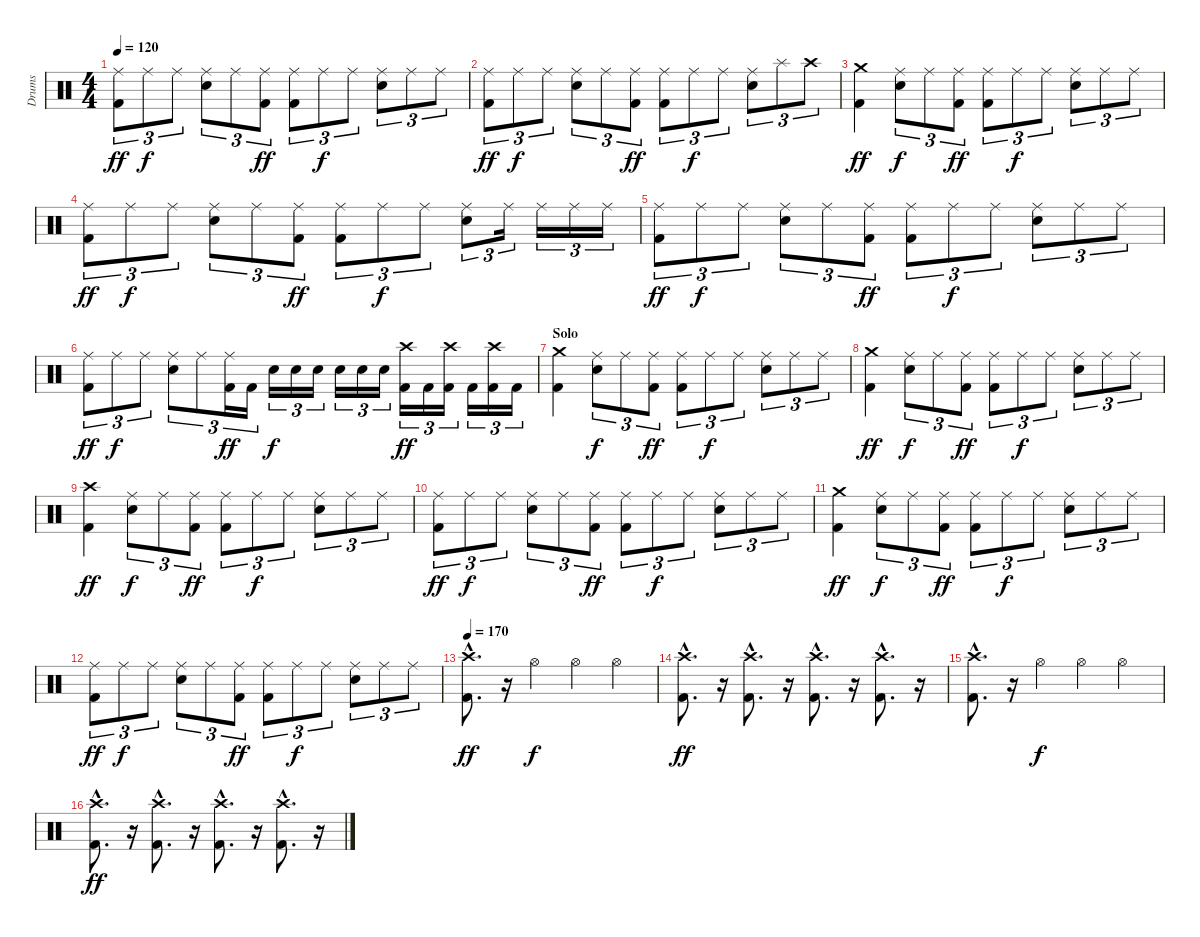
\track ("Drums" "Drums") {instrument percussion}
\staff {score}
\articulation defaults
\ts (4 4)
\tempo 120
\clef neutral
\ks c
("Ride (middle)" "Kick (hit) 2").8{tu (3 2) dy ff} "Ride (middle)".8{tu (3 2) dy f} "Ride (middle)".8{tu (3 2)} ("Ride (middle)" "Electric Snare (hit)").8{tu (3 2)} "Ride (middle)".8{tu (3 2)} ("Ride (middle)" "Kick (hit) 2").8{tu (3 2) dy ff} ("Ride (middle)" "Kick (hit) 2").8{tu (3 2)} "Ride (middle)".8{tu (3 2) dy f} "Ride (middle)".8{tu (3 2)} ("Ride (middle)" "Electric Snare (hit)").8{tu (3 2)} "Ride (middle)".8{tu (3 2)} "Ride (middle)".8{tu (3 2)} |
("Ride (middle)" "Kick (hit) 2").8{tu (3 2) dy ff} "Ride (middle)".8{tu (3 2) dy f} "Ride (middle)".8{tu (3 2)} ("Ride (middle)" "Electric Snare (hit)").8{tu (3 2)} "Ride (middle)".8{tu (3 2)} ("Ride (middle)" "Kick (hit) 2").8{tu (3 2) dy ff} ("Ride (middle)" "Kick (hit) 2").8{tu (3 2)} "Ride (middle)".8{tu (3 2) dy f} "Ride (middle)".8{tu (3 2)} ("Ride (middle)" "Electric Snare (hit)").8{tu (3 2)} "Splash (hit)".8{tu (3 2)} "Crash high (hit)".8{tu (3 2)} |
("Crash medium (hit)" "Kick (hit) 2").4{dy ff} ("Ride (middle)" "Electric Snare (hit)").8{tu (3 2) dy f} "Ride (middle)".8{tu (3 2)} ("Ride (middle)" "Kick (hit) 2").8{tu (3 2) dy ff} ("Ride (middle)" "Kick (hit) 2").8{tu (3 2)} "Ride (middle)".8{tu (3 2) dy f} "Ride (middle)".8{tu (3 2)} ("Ride (middle)" "Electric Snare (hit)").8{tu (3 2)} "Ride (middle)".8{tu (3 2)} "Ride (middle)".8{tu (3 2)} |
("Ride (middle)" "Kick (hit) 2").8{tu (3 2) dy ff} "Ride (middle)".8{tu (3 2) dy f} "Ride (middle)".8{tu (3 2)} ("Ride (middle)" "Electric Snare (hit)").8{tu (3 2)} "Ride (middle)".8{tu (3 2)} ("Ride (middle)" "Kick (hit) 2").8{tu (3 2) dy ff} ("Ride (middle)" "Kick (hit) 2").8{tu (3 2)} "Ride (middle)".8{tu (3 2) dy f} "Ride (middle)".8{tu (3 2)} ("Ride (middle)" "Electric Snare (hit)").8{tu (3 2)} "Ride (middle)".16{tu (3 2)} "Ride (middle)".16{tu (3 2)} "Ride (middle)".16{tu (3 2)} "Ride (middle)".16{tu (3 2)} |
("Ride (middle)" "Kick (hit) 2").8{tu (3 2) dy ff} "Ride (middle)".8{tu (3 2) dy f} "Ride (middle)".8{tu (3 2)} ("Ride (middle)" "Electric Snare (hit)").8{tu (3 2)} "Ride (middle)".8{tu (3 2)} ("Ride (middle)" "Kick (hit) 2").8{tu (3 2) dy ff} ("Ride (middle)" "Kick (hit) 2").8{tu (3 2)} "Ride (middle)".8{tu (3 2) dy f} "Ride (middle)".8{tu (3 2)} ("Ride (middle)" "Electric Snare (hit)").8{tu (3 2)} "Ride (middle)".8{tu (3 2)} "Ride (middle)".8{tu (3 2)} |
("Ride (middle)" "Kick (hit) 2").8{tu (3 2) dy ff} "Ride (middle)".8{tu (3 2) dy f} "Ride (middle)".8{tu (3 2)} ("Ride (middle)" "Electric Snare (hit)").8{tu (3 2)} "Ride (middle)".8{tu (3 2)} ("Ride (middle)" "Kick (hit) 2").16{tu (3 2) dy ff} "Kick (hit) 2".16{tu (3 2)} "Electric Snare (hit)".16{tu (3 2) dy f} "Electric Snare (hit)".16{tu (3 2)} "Electric Snare (hit)".16{tu (3 2)} "Electric Snare (hit)".16{tu (3 2)} "Electric Snare (hit)".16{tu (3 2)} "Electric Snare (hit)".16{tu (3 2)} ("Crash high (hit)" "Kick (hit) 2").16{tu (3 2) dy ff} "Kick (hit) 2".16{tu (3 2)} ("Crash high (hit)" "Kick (hit) 2").16{tu (3 2)} "Kick (hit) 2".16{tu (3 2)} ("Crash high (hit)" "Kick (hit) 2").16{tu (3 2)} "Kick (hit) 2".16{tu (3 2)} |
\section ("" "Solo")
("Crash medium (hit)" "Kick (hit) 2").4 ("Ride (middle)" "Electric Snare (hit)").8{tu (3 2) dy f} "Ride (middle)".8{tu (3 2)} ("Ride (middle)" "Kick (hit) 2").8{tu (3 2) dy ff} ("Ride (middle)" "Kick (hit) 2").8{tu (3 2)} "Ride (middle)".8{tu (3 2) dy f} "Ride (middle)".8{tu (3 2)} ("Ride (middle)" "Electric Snare (hit)").8{tu (3 2)} "Ride (middle)".8{tu (3 2)} "Ride (middle)".8{tu (3 2)} |
("Crash medium (hit)" "Kick (hit) 2").4{dy ff} ("Ride (middle)" "Electric Snare (hit)").8{tu (3 2) dy f} "Ride (middle)".8{tu (3 2)} ("Ride (middle)" "Kick (hit) 2").8{tu (3 2) dy ff} ("Ride (middle)" "Kick (hit) 2").8{tu (3 2)} "Ride (middle)".8{tu (3 2) dy f} "Ride (middle)".8{tu (3 2)} ("Ride (middle)" "Electric Snare (hit)").8{tu (3 2)} "Ride (middle)".8{tu (3 2)} "Ride (middle)".8{tu (3 2)} |
("Crash high (hit)" "Kick (hit) 2").4{dy ff} ("Ride (middle)" "Electric Snare (hit)").8{tu (3 2) dy f} "Ride (middle)".8{tu (3 2)} ("Ride (middle)" "Kick (hit) 2").8{tu (3 2) dy ff} ("Ride (middle)" "Kick (hit) 2").8{tu (3 2)} "Ride (middle)".8{tu (3 2) dy f} "Ride (middle)".8{tu (3 2)} ("Ride (middle)" "Electric Snare (hit)").8{tu (3 2)} "Ride (middle)".8{tu (3 2)} "Ride (middle)".8{tu (3 2)} |
("Ride (middle)" "Kick (hit) 2").8{tu (3 2) dy ff} "Ride (middle)".8{tu (3 2) dy f} "Ride (middle)".8{tu (3 2)} ("Ride (middle)" "Electric Snare (hit)").8{tu (3 2)} "Ride (middle)".8{tu (3 2)} ("Ride (middle)" "Kick (hit) 2").8{tu (3 2) dy ff} ("Ride (middle)" "Kick (hit) 2").8{tu (3 2)} "Ride (middle)".8{tu (3 2) dy f} "Ride (middle)".8{tu (3 2)} ("Ride (middle)" "Electric Snare (hit)").8{tu (3 2)} "Ride (middle)".8{tu (3 2)} "Ride (middle)".8{tu (3 2)} |
("Crash medium (hit)" "Kick (hit) 2").4{dy ff} ("Ride (middle)" "Electric Snare (hit)").8{tu (3 2) dy f} "Ride (middle)".8{tu (3 2)} ("Ride (middle)" "Kick (hit) 2").8{tu (3 2) dy ff} ("Ride (middle)" "Kick (hit) 2").8{tu (3 2)} "Ride (middle)".8{tu (3 2) dy f} "Ride (middle)".8{tu (3 2)} ("Ride (middle)" "Electric Snare (hit)").8{tu (3 2)} "Ride (middle)".8{tu (3 2)} "Ride (middle)".8{tu (3 2)} |
("Ride (middle)" "Kick (hit) 2").8{tu (3 2) dy ff} "Ride (middle)".8{tu (3 2) dy f} "Ride (middle)".8{tu (3 2)} ("Ride (middle)" "Electric Snare (hit)").8{tu (3 2)} "Ride (middle)".8{tu (3 2)} ("Ride (middle)" "Kick (hit) 2").8{tu (3 2) dy ff} ("Ride (middle)" "Kick (hit) 2").8{tu (3 2)} "Ride (middle)".8{tu (3 2) dy f} "Ride (middle)".8{tu (3 2)} ("Ride (middle)" "Electric Snare (hit)").8{tu (3 2)} "Ride (middle)".8{tu (3 2)} "Ride (middle)".8{tu (3 2)} |
\tempo 170
("Crash high (hit)"{hac} "Kick (hit) 2"{hac}).8{d dy ff} r.16{volume 4} "Hi-Hat (open)".4{dy f volume 13} "Hi-Hat (open)".4 "Hi-Hat (open)".4 |
("Crash high (hit)"{hac} "Kick (hit) 2"{hac}).8{d dy ff volume 13} r.16{volume 4} ("Crash high (hit)"{hac} "Kick (hit) 2"{hac}).8{d volume 13} r.16{volume 4} ("Crash high (hit)"{hac} "Kick (hit) 2"{hac}).8{d volume 13} r.16{volume 4} ("Crash high (hit)"{hac} "Kick (hit) 2"{hac}).8{d volume 13} r.16{volume 4} |
("Crash high (hit)"{hac} "Kick (hit) 2"{hac}).8{d volume 13} r.16{volume 4} "Hi-Hat (open)".4{dy f volume 13} "Hi-Hat (open)".4 "Hi-Hat (open)".4 |
("Crash high (hit)"{hac} "Kick (hit) 2"{hac}).8{d dy ff volume 13} r.16{volume 4} ("Crash high (hit)"{hac} "Kick (hit) 2"{hac}).8{d volume 13} r.16{volume 4} ("Crash high (hit)"{hac} "Kick (hit) 2"{hac}).8{d volume 13} r.16{volume 4} ("Crash high (hit)"{hac} "Kick (hit) 2"{hac}).8{d volume 13} r.16{volume 4}
